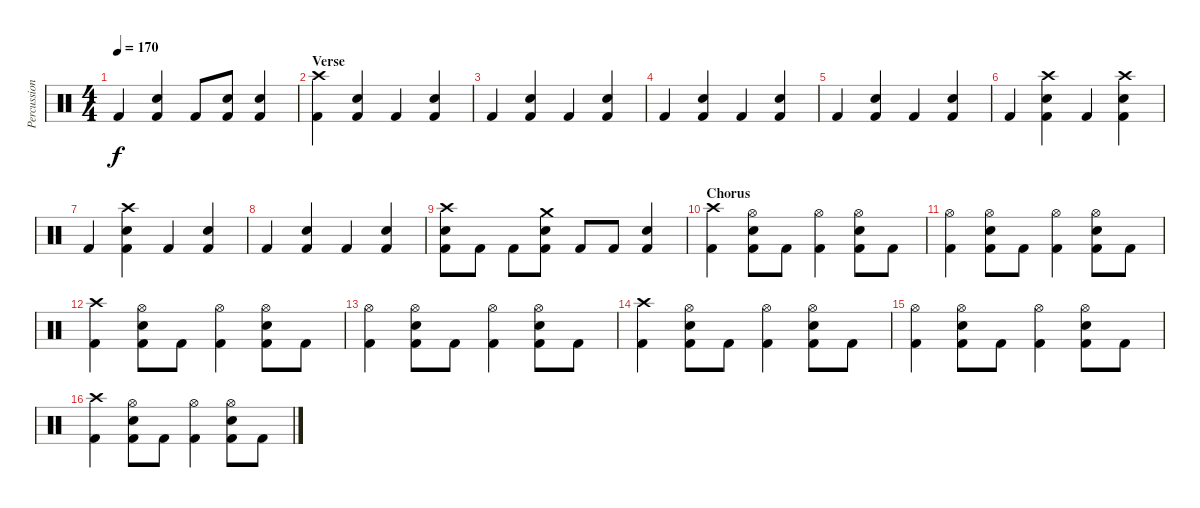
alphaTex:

\track ("Percussion" "Percussion") {instrument percussion}
\staff {score}
\articulation defaults
\ts (4 4)
\tempo 170
\clef neutral
\ks c "Kick (hit) 2".4{dy f}
("Snare (hit) 2" "Kick (hit) 2").4 "Kick (hit) 2".8 ("Snare (hit) 2" "Kick (hit) 2").8 ("Snare (hit) 2" "Kick (hit) 2").4 |
\section ("" "Verse")
("Crash high (hit)" "Kick (hit) 2").4 ("Snare (hit) 2" "Kick (hit) 2").4 "Kick (hit) 2".4 ("Snare (hit) 2" "Kick (hit) 2").4 |
"Kick (hit) 2".4 ("Snare (hit) 2" "Kick (hit) 2").4 "Kick (hit) 2".4 ("Snare (hit) 2" "Kick (hit) 2").4 |
"Kick (hit) 2".4 ("Snare (hit) 2" "Kick (hit) 2").4 "Kick (hit) 2".4 ("Snare (hit) 2" "Kick (hit) 2").4 |
"Kick (hit) 2".4 ("Snare (hit) 2" "Kick (hit) 2").4 "Kick (hit) 2".4 ("Snare (hit) 2" "Kick (hit) 2").4 |
"Kick (hit) 2".4 ("Crash high (hit)" "Snare (hit) 2" "Kick (hit) 2").4 "Kick (hit) 2".4 ("Crash high (hit)" "Snare (hit) 2" "Kick (hit) 2").4 |
"Kick (hit) 2".4 ("Crash high (hit)" "Snare (hit) 2" "Kick (hit) 2").4 "Kick (hit) 2".4 ("Snare (hit) 2" "Kick (hit) 2").4 |
"Kick (hit) 2".4 ("Snare (hit) 2" "Kick (hit) 2").4 "Kick (hit) 2".4 ("Snare (hit) 2" "Kick (hit) 2").4 |
("Crash high (hit)" "Snare (hit) 2" "Kick (hit) 2").8 "Kick (hit) 2".8 "Kick (hit) 2".8 ("Crash medium (hit)" "Snare (hit) 2" "Kick (hit) 2").8 "Kick (hit) 2".8 "Kick (hit) 2".8 ("Snare (hit) 2" "Kick (hit) 2").4 |
\section ("" "Chorus")
("Crash high (hit)" "Kick (hit) 2").4 ("Hi-Hat (open)" "Snare (hit) 2" "Kick (hit) 2").8 "Kick (hit) 2".8 ("Hi-Hat (open)" "Kick (hit) 2").4 ("Hi-Hat (open)" "Snare (hit) 2" "Kick (hit) 2").8 "Kick (hit) 2".8 |
("Hi-Hat (open)" "Kick (hit) 2").4 ("Hi-Hat (open)" "Snare (hit) 2" "Kick (hit) 2").8 "Kick (hit) 2".8 ("Hi-Hat (open)" "Kick (hit) 2").4 ("Hi-Hat (open)" "Snare (hit) 2" "Kick (hit) 2").8 "Kick (hit) 2".8 |
("Crash high (hit)" "Kick (hit) 2").4 ("Hi-Hat (open)" "Snare (hit) 2" "Kick (hit) 2").8 "Kick (hit) 2".8 ("Hi-Hat (open)" "Kick (hit) 2").4 ("Hi-Hat (open)" "Snare (hit) 2" "Kick (hit) 2").8 "Kick (hit) 2".8 |
("Hi-Hat (open)" "Kick (hit) 2").4 ("Hi-Hat (open)" "Snare (hit) 2" "Kick (hit) 2").8 "Kick (hit) 2".8 ("Hi-Hat (open)" "Kick (hit) 2").4 ("Hi-Hat (open)" "Snare (hit) 2" "Kick (hit) 2").8 "Kick (hit) 2".8 |
("Crash high (hit)" "Kick (hit) 2").4 ("Hi-Hat (open)" "Snare (hit) 2" "Kick (hit) 2").8 "Kick (hit) 2".8 ("Hi-Hat (open)" "Kick (hit) 2").4 ("Hi-Hat (open)" "Snare (hit) 2" "Kick (hit) 2").8 "Kick (hit) 2".8 |
("Hi-Hat (open)" "Kick (hit) 2").4 ("Hi-Hat (open)" "Snare (hit) 2" "Kick (hit) 2").8 "Kick (hit) 2".8 ("Hi-Hat (open)" "Kick (hit) 2").4 ("Hi-Hat (open)" "Snare (hit) 2" "Kick (hit) 2").8 "Kick (hit) 2".8 |
("Crash high (hit)" "Kick (hit) 2").4 ("Hi-Hat (open)" "Snare (hit) 2" "Kick (hit) 2").8 "Kick (hit) 2".8 ("Hi-Hat (open)" "Kick (hit) 2").4 ("Hi-Hat (open)" "Snare (hit) 2" "Kick (hit) 2").8 "Kick (hit) 2".8
